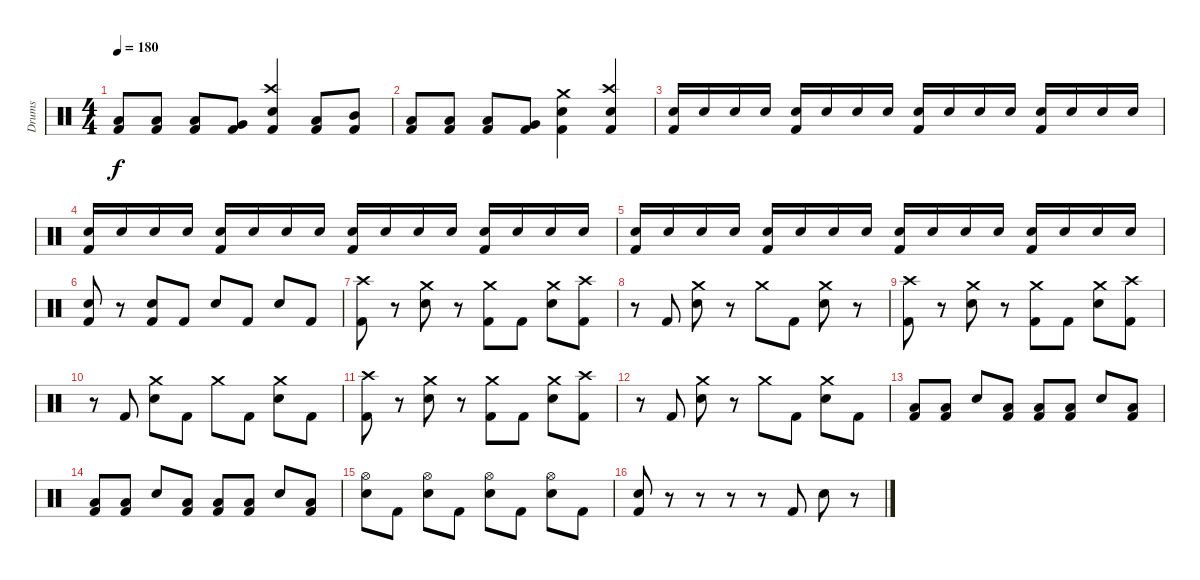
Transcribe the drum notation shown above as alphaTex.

\track ("Drums" "Drums") {instrument percussion}
\staff {score}
\articulation defaults
\ts (4 4)
\tempo 180
\clef neutral
\ks c
("Low Tom (hit)" "Kick (hit) 2").8{dy f} ("Low Tom (hit)" "Kick (hit) 2").8 ("Low Tom (hit)" "Kick (hit) 2").8 ("Very Low Tom (hit)" "Kick (hit) 2").8 ("Crash high (hit)" "Electric Snare (hit)" "Kick (hit) 2").4 ("Low Tom (hit)" "Kick (hit) 2").8 ("Mid Tom (hit)" "Kick (hit) 2").8 |
("Low Tom (hit)" "Kick (hit) 2").8 ("Low Tom (hit)" "Kick (hit) 2").8 ("Low Tom (hit)" "Kick (hit) 2").8 ("Very Low Tom (hit)" "Kick (hit) 2").8 ("Crash medium (hit)" "Electric Snare (hit)" "Kick (hit) 2").4 ("Crash high (hit)" "Electric Snare (hit)" "Kick (hit) 2").4 |
("Electric Snare (hit)" "Kick (hit) 2").16{volume 8} "Electric Snare (hit)".16{volume 13} "Electric Snare (hit)".16 "Electric Snare (hit)".16 ("Electric Snare (hit)" "Kick (hit) 2").16 "Electric Snare (hit)".16 "Electric Snare (hit)".16 "Electric Snare (hit)".16 ("Electric Snare (hit)" "Kick (hit) 2").16 "Electric Snare (hit)".16 "Electric Snare (hit)".16 "Electric Snare (hit)".16 ("Electric Snare (hit)" "Kick (hit) 2").16 "Electric Snare (hit)".16 "Electric Snare (hit)".16 "Electric Snare (hit)".16 |
("Electric Snare (hit)" "Kick (hit) 2").16 "Electric Snare (hit)".16 "Electric Snare (hit)".16 "Electric Snare (hit)".16 ("Electric Snare (hit)" "Kick (hit) 2").16 "Electric Snare (hit)".16 "Electric Snare (hit)".16 "Electric Snare (hit)".16 ("Electric Snare (hit)" "Kick (hit) 2").16 "Electric Snare (hit)".16 "Electric Snare (hit)".16 "Electric Snare (hit)".16 ("Electric Snare (hit)" "Kick (hit) 2").16 "Electric Snare (hit)".16 "Electric Snare (hit)".16 "Electric Snare (hit)".16 |
("Electric Snare (hit)" "Kick (hit) 2").16 "Electric Snare (hit)".16 "Electric Snare (hit)".16 "Electric Snare (hit)".16 ("Electric Snare (hit)" "Kick (hit) 2").16 "Electric Snare (hit)".16 "Electric Snare (hit)".16 "Electric Snare (hit)".16 ("Electric Snare (hit)" "Kick (hit) 2").16 "Electric Snare (hit)".16 "Electric Snare (hit)".16 "Electric Snare (hit)".16 ("Electric Snare (hit)" "Kick (hit) 2").16 "Electric Snare (hit)".16 "Electric Snare (hit)".16 "Electric Snare (hit)".16 |
("Electric Snare (hit)" "Kick (hit) 2").8{volume 13} r.8 ("Electric Snare (hit)" "Kick (hit) 2").8 "Kick (hit) 2".8 "Electric Snare (hit)".8 "Kick (hit) 2".8 "Electric Snare (hit)".8 "Kick (hit) 2".8 |
("Crash high (hit)" "Kick (hit) 2").8 r.8 ("Crash medium (hit)" "Electric Snare (hit)").8 r.8 ("Crash medium (hit)" "Kick (hit) 2").8 "Kick (hit) 2".8 ("Crash medium (hit)" "Electric Snare (hit)").8 ("Crash high (hit)" "Kick (hit) 2").8 |
r.8 "Kick (hit) 2".8 ("Crash medium (hit)" "Electric Snare (hit)").8 r.8 "Crash medium (hit)".8 "Kick (hit) 2".8 ("Crash medium (hit)" "Electric Snare (hit)").8 r.8 |
("Crash high (hit)" "Kick (hit) 2").8 r.8 ("Crash medium (hit)" "Electric Snare (hit)").8 r.8 ("Crash medium (hit)" "Kick (hit) 2").8 "Kick (hit) 2".8 ("Crash medium (hit)" "Electric Snare (hit)").8 ("Crash high (hit)" "Kick (hit) 2").8 |
r.8 "Kick (hit) 2".8 ("Crash medium (hit)" "Electric Snare (hit)").8 "Kick (hit) 2".8 "Crash medium (hit)".8 "Kick (hit) 2".8 ("Crash medium (hit)" "Electric Snare (hit)").8 "Kick (hit) 2".8 |
("Crash high (hit)" "Kick (hit) 2").8 r.8 ("Crash medium (hit)" "Electric Snare (hit)").8 r.8 ("Crash medium (hit)" "Kick (hit) 2").8 "Kick (hit) 2".8 ("Crash medium (hit)" "Electric Snare (hit)").8 ("Crash high (hit)" "Kick (hit) 2").8 |
r.8 "Kick (hit) 2".8 ("Crash medium (hit)" "Electric Snare (hit)").8 r.8 "Crash medium (hit)".8 "Kick (hit) 2".8 ("Crash medium (hit)" "Electric Snare (hit)").8 "Kick (hit) 2".8 |
("Low Tom (hit)" "Kick (hit) 2").8 ("Low Tom (hit)" "Kick (hit) 2").8 "Electric Snare (hit)".8 ("Low Tom (hit)" "Kick (hit) 2").8 ("Low Tom (hit)" "Kick (hit) 2").8 ("Low Tom (hit)" "Kick (hit) 2").8 "Electric Snare (hit)".8 ("Low Tom (hit)" "Kick (hit) 2").8 |
("Low Tom (hit)" "Kick (hit) 2").8 ("Low Tom (hit)" "Kick (hit) 2").8 "Electric Snare (hit)".8 ("Low Tom (hit)" "Kick (hit) 2").8 ("Low Tom (hit)" "Kick (hit) 2").8 ("Low Tom (hit)" "Kick (hit) 2").8 "Electric Snare (hit)".8 ("Low Tom (hit)" "Kick (hit) 2").8 |
("Hi-Hat (open)" "Electric Snare (hit)").8 "Kick (hit) 2".8 ("Hi-Hat (open)" "Electric Snare (hit)").8 "Kick (hit) 2".8 ("Hi-Hat (open)" "Electric Snare (hit)").8 "Kick (hit) 2".8 ("Hi-Hat (open)" "Electric Snare (hit)").8 "Kick (hit) 2".8 |
("Electric Snare (hit)" "Kick (hit) 2").8 r.8 r.8 r.8 r.8 "Kick (hit) 2".8 "Electric Snare (hit)".8 r.8
